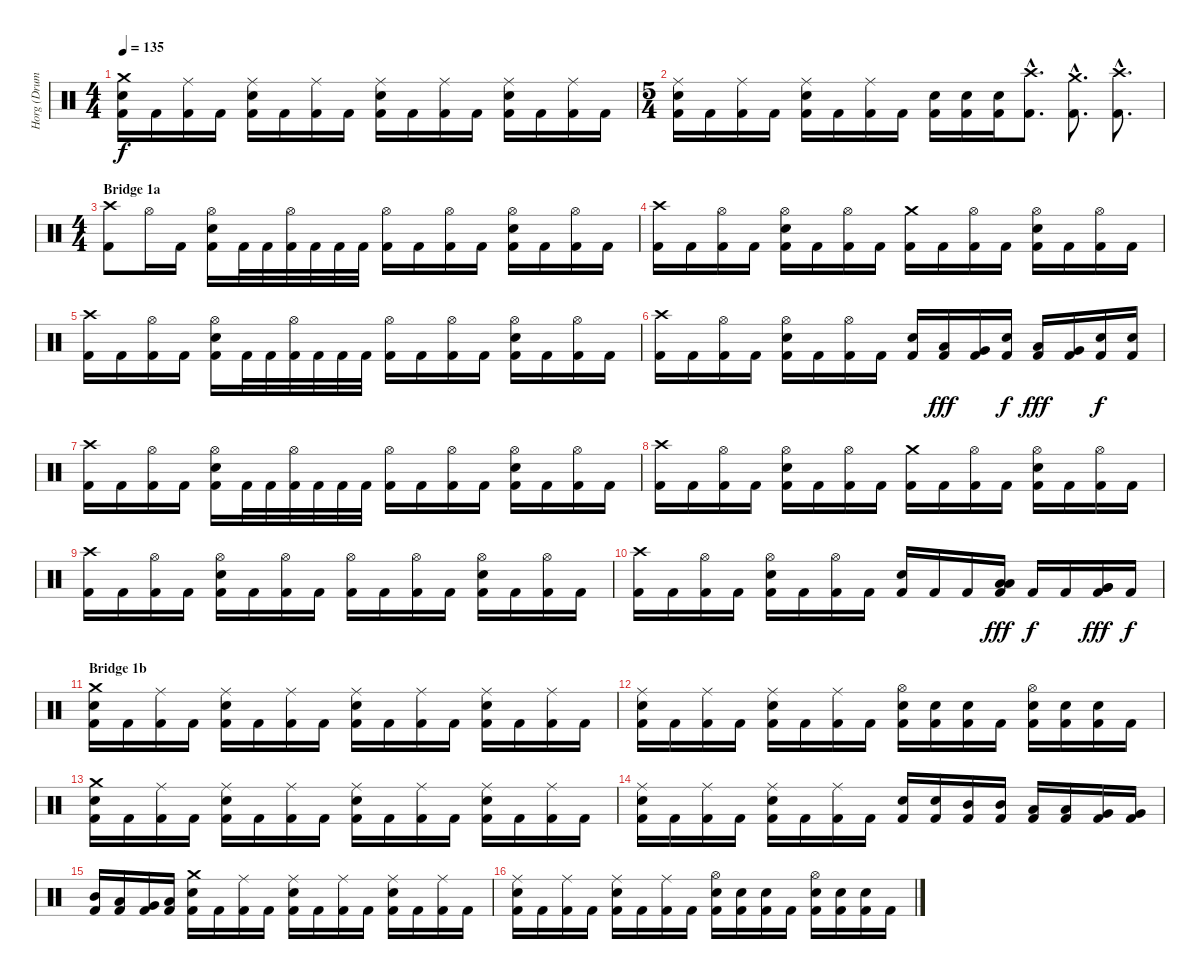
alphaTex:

\track ("Horg (Drums)" "Horg (Drum") {instrument percussion}
\staff {score}
\articulation defaults
\ts (4 4)
\tempo 135
\clef neutral
\ks c
("Crash medium (hit)" "Electric Snare (hit)" "Kick (hit) 2").16{dy f} "Kick (hit) 2".16 ("Ride (middle)" "Kick (hit) 2").16 "Kick (hit) 2".16 ("Ride (middle)" "Electric Snare (hit)" "Kick (hit) 2").16 "Kick (hit) 2".16 ("Ride (middle)" "Kick (hit) 2").16 "Kick (hit) 2".16 ("Ride (middle)" "Electric Snare (hit)" "Kick (hit) 2").16 "Kick (hit) 2".16 ("Ride (middle)" "Kick (hit) 2").16 "Kick (hit) 2".16 ("Ride (middle)" "Electric Snare (hit)" "Kick (hit) 2").16 "Kick (hit) 2".16 ("Ride (middle)" "Kick (hit) 2").16 "Kick (hit) 2".16 |
\ts (5 4)
("Ride (middle)" "Electric Snare (hit)" "Kick (hit) 2").16 "Kick (hit) 2".16 ("Ride (middle)" "Kick (hit) 2").16 "Kick (hit) 2".16 ("Ride (middle)" "Electric Snare (hit)" "Kick (hit) 2").16 "Kick (hit) 2".16 ("Ride (middle)" "Kick (hit) 2").16 "Kick (hit) 2".16 ("Electric Snare (hit)" "Kick (hit) 2").16 ("Electric Snare (hit)" "Kick (hit) 2").16 ("Electric Snare (hit)" "Kick (hit) 2").16 ("Crash high (hit)"{hac} "Kick (hit) 2"{hac}).8{d} ("Crash medium (hit)"{hac} "Kick (hit) 2"{hac}).8{d} ("Crash high (hit)"{hac} "Kick (hit) 2"{hac}).8{d} |
\ts (4 4)
\section ("" "Bridge 1a")
("Crash high (hit)" "Kick (hit) 2").8 "Hi-Hat (open)".16 "Kick (hit) 2".16 ("Hi-Hat (open)" "Electric Snare (hit)" "Kick (hit) 2").16 "Kick (hit) 2".32 "Kick (hit) 2".32 ("Hi-Hat (open)" "Kick (hit) 2").32 "Kick (hit) 2".32 "Kick (hit) 2".32 "Kick (hit) 2".32 ("Hi-Hat (open)" "Kick (hit) 2").16 "Kick (hit) 2".16 ("Hi-Hat (open)" "Kick (hit) 2").16 "Kick (hit) 2".16 ("Hi-Hat (open)" "Electric Snare (hit)" "Kick (hit) 2").16 "Kick (hit) 2".16 ("Hi-Hat (open)" "Kick (hit) 2").16 "Kick (hit) 2".16 |
("Crash high (hit)" "Kick (hit) 2").16 "Kick (hit) 2".16 ("Hi-Hat (open)" "Kick (hit) 2").16 "Kick (hit) 2".16 ("Hi-Hat (open)" "Electric Snare (hit)" "Kick (hit) 2").16 "Kick (hit) 2".16 ("Hi-Hat (open)" "Kick (hit) 2").16 "Kick (hit) 2".16 ("Crash medium (hit)" "Kick (hit) 2").16 "Kick (hit) 2".16 ("Hi-Hat (open)" "Kick (hit) 2").16 "Kick (hit) 2".16 ("Hi-Hat (open)" "Electric Snare (hit)" "Kick (hit) 2").16 "Kick (hit) 2".16 ("Hi-Hat (open)" "Kick (hit) 2").16 "Kick (hit) 2".16 |
("Crash high (hit)" "Kick (hit) 2").16 "Kick (hit) 2".16 ("Hi-Hat (open)" "Kick (hit) 2").16 "Kick (hit) 2".16 ("Hi-Hat (open)" "Electric Snare (hit)" "Kick (hit) 2").16 "Kick (hit) 2".32 "Kick (hit) 2".32 ("Hi-Hat (open)" "Kick (hit) 2").32 "Kick (hit) 2".32 "Kick (hit) 2".32 "Kick (hit) 2".32 ("Hi-Hat (open)" "Kick (hit) 2").16 "Kick (hit) 2".16 ("Hi-Hat (open)" "Kick (hit) 2").16 "Kick (hit) 2".16 ("Hi-Hat (open)" "Electric Snare (hit)" "Kick (hit) 2").16 "Kick (hit) 2".16 ("Hi-Hat (open)" "Kick (hit) 2").16 "Kick (hit) 2".16 |
("Crash high (hit)" "Kick (hit) 2").16 "Kick (hit) 2".16 ("Hi-Hat (open)" "Kick (hit) 2").16 "Kick (hit) 2".16 ("Hi-Hat (open)" "Electric Snare (hit)" "Kick (hit) 2").16 "Kick (hit) 2".16 ("Hi-Hat (open)" "Kick (hit) 2").16 "Kick (hit) 2".16 ("Electric Snare (hit)" "Kick (hit) 2").16 ("Low Tom (hit)" "Kick (hit) 2").16{dy fff} ("Very Low Tom (hit)" "Kick (hit) 2").16 ("Electric Snare (hit)" "Kick (hit) 2").16{dy f} ("Low Tom (hit)" "Kick (hit) 2").16{dy fff} ("Very Low Tom (hit)" "Kick (hit) 2").16 ("Electric Snare (hit)" "Kick (hit) 2").16{dy f} ("Electric Snare (hit)" "Kick (hit) 2").16 |
("Crash high (hit)" "Kick (hit) 2").16 "Kick (hit) 2".16 ("Hi-Hat (open)" "Kick (hit) 2").16 "Kick (hit) 2".16 ("Hi-Hat (open)" "Electric Snare (hit)" "Kick (hit) 2").16 "Kick (hit) 2".32 "Kick (hit) 2".32 ("Hi-Hat (open)" "Kick (hit) 2").32 "Kick (hit) 2".32 "Kick (hit) 2".32 "Kick (hit) 2".32 ("Hi-Hat (open)" "Kick (hit) 2").16 "Kick (hit) 2".16 ("Hi-Hat (open)" "Kick (hit) 2").16 "Kick (hit) 2".16 ("Hi-Hat (open)" "Electric Snare (hit)" "Kick (hit) 2").16 "Kick (hit) 2".16 ("Hi-Hat (open)" "Kick (hit) 2").16 "Kick (hit) 2".16 |
("Crash high (hit)" "Kick (hit) 2").16 "Kick (hit) 2".16 ("Hi-Hat (open)" "Kick (hit) 2").16 "Kick (hit) 2".16 ("Hi-Hat (open)" "Electric Snare (hit)" "Kick (hit) 2").16 "Kick (hit) 2".16 ("Hi-Hat (open)" "Kick (hit) 2").16 "Kick (hit) 2".16 ("Crash medium (hit)" "Kick (hit) 2").16 "Kick (hit) 2".16 ("Hi-Hat (open)" "Kick (hit) 2").16 "Kick (hit) 2".16 ("Hi-Hat (open)" "Electric Snare (hit)" "Kick (hit) 2").16 "Kick (hit) 2".16 ("Hi-Hat (open)" "Kick (hit) 2").16 "Kick (hit) 2".16 |
("Crash high (hit)" "Kick (hit) 2").16 "Kick (hit) 2".16 ("Hi-Hat (open)" "Kick (hit) 2").16 "Kick (hit) 2".16 ("Hi-Hat (open)" "Electric Snare (hit)" "Kick (hit) 2").16 "Kick (hit) 2".16 ("Hi-Hat (open)" "Kick (hit) 2").16 "Kick (hit) 2".16 ("Hi-Hat (open)" "Kick (hit) 2").16 "Kick (hit) 2".16 ("Hi-Hat (open)" "Kick (hit) 2").16 "Kick (hit) 2".16 ("Hi-Hat (open)" "Electric Snare (hit)" "Kick (hit) 2").16 "Kick (hit) 2".16 ("Hi-Hat (open)" "Kick (hit) 2").16 "Kick (hit) 2".16 |
("Crash high (hit)" "Kick (hit) 2").16 "Kick (hit) 2".16 ("Hi-Hat (open)" "Kick (hit) 2").16 "Kick (hit) 2".16 ("Hi-Hat (open)" "Electric Snare (hit)" "Kick (hit) 2").16 "Kick (hit) 2".16 ("Hi-Hat (open)" "Kick (hit) 2").16 "Kick (hit) 2".16 ("Electric Snare (hit)" "Kick (hit) 2").16 "Kick (hit) 2".16 "Kick (hit) 2".16 ("Low Tom (hit)" "Low Tom (hit)" "Kick (hit) 2").16{dy fff} "Kick (hit) 2".16{dy f} "Kick (hit) 2".16 ("Very Low Tom (hit)" "Very Low Tom (hit)" "Kick (hit) 2").16{dy fff} "Kick (hit) 2".16{dy f} |
\section ("" "Bridge 1b")
("Crash medium (hit)" "Electric Snare (hit)" "Kick (hit) 2").16 "Kick (hit) 2".16 ("Ride (middle)" "Kick (hit) 2").16 "Kick (hit) 2".16 ("Ride (middle)" "Electric Snare (hit)" "Kick (hit) 2").16 "Kick (hit) 2".16 ("Ride (middle)" "Kick (hit) 2").16 "Kick (hit) 2".16 ("Ride (middle)" "Electric Snare (hit)" "Kick (hit) 2").16 "Kick (hit) 2".16 ("Ride (middle)" "Kick (hit) 2").16 "Kick (hit) 2".16 ("Ride (middle)" "Electric Snare (hit)" "Kick (hit) 2").16 "Kick (hit) 2".16 ("Ride (middle)" "Kick (hit) 2").16 "Kick (hit) 2".16 |
("Ride (middle)" "Electric Snare (hit)" "Kick (hit) 2").16 "Kick (hit) 2".16 ("Ride (middle)" "Kick (hit) 2").16 "Kick (hit) 2".16 ("Ride (middle)" "Electric Snare (hit)" "Kick (hit) 2").16 "Kick (hit) 2".16 ("Ride (middle)" "Kick (hit) 2").16 "Kick (hit) 2".16 ("Hi-Hat (open)" "Electric Snare (hit)" "Kick (hit) 2").16 ("Electric Snare (hit)" "Kick (hit) 2").16 ("Electric Snare (hit)" "Kick (hit) 2").16 "Kick (hit) 2".16 ("Hi-Hat (open)" "Electric Snare (hit)" "Kick (hit) 2").16 ("Electric Snare (hit)" "Kick (hit) 2").16 ("Electric Snare (hit)" "Kick (hit) 2").16 "Kick (hit) 2".16 |
("Crash medium (hit)" "Electric Snare (hit)" "Kick (hit) 2").16 "Kick (hit) 2".16 ("Ride (middle)" "Kick (hit) 2").16 "Kick (hit) 2".16 ("Ride (middle)" "Electric Snare (hit)" "Kick (hit) 2").16 "Kick (hit) 2".16 ("Ride (middle)" "Kick (hit) 2").16 "Kick (hit) 2".16 ("Ride (middle)" "Electric Snare (hit)" "Kick (hit) 2").16 "Kick (hit) 2".16 ("Ride (middle)" "Kick (hit) 2").16 "Kick (hit) 2".16 ("Ride (middle)" "Electric Snare (hit)" "Kick (hit) 2").16 "Kick (hit) 2".16 ("Ride (middle)" "Kick (hit) 2").16 "Kick (hit) 2".16 |
("Ride (middle)" "Electric Snare (hit)" "Kick (hit) 2").16 "Kick (hit) 2".16 ("Ride (middle)" "Kick (hit) 2").16 "Kick (hit) 2".16 ("Ride (middle)" "Electric Snare (hit)" "Kick (hit) 2").16 "Kick (hit) 2".16 ("Ride (middle)" "Kick (hit) 2").16 "Kick (hit) 2".16 ("Electric Snare (hit)" "Kick (hit) 2").16 ("Electric Snare (hit)" "Kick (hit) 2").16 ("Mid Tom (hit)" "Kick (hit) 2").16 ("Mid Tom (hit)" "Kick (hit) 2").16 ("Low Tom (hit)" "Kick (hit) 2").16 ("Low Tom (hit)" "Kick (hit) 2").16 ("Very Low Tom (hit)" "Kick (hit) 2").16 ("Very Low Tom (hit)" "Kick (hit) 2").16 |
("Mid Tom (hit)" "Kick (hit) 2").16 ("Low Tom (hit)" "Kick (hit) 2").16 ("Very Low Tom (hit)" "Kick (hit) 2").16 ("Low Floor Tom (hit)" "Kick (hit) 2").16 ("Crash medium (hit)" "Electric Snare (hit)" "Kick (hit) 2").16 "Kick (hit) 2".16 ("Ride (middle)" "Kick (hit) 2").16 "Kick (hit) 2".16 ("Ride (middle)" "Electric Snare (hit)" "Kick (hit) 2").16 "Kick (hit) 2".16 ("Ride (middle)" "Kick (hit) 2").16 "Kick (hit) 2".16 ("Ride (middle)" "Electric Snare (hit)" "Kick (hit) 2").16 "Kick (hit) 2".16 ("Ride (middle)" "Kick (hit) 2").16 "Kick (hit) 2".16 |
("Ride (middle)" "Electric Snare (hit)" "Kick (hit) 2").16 "Kick (hit) 2".16 ("Ride (middle)" "Kick (hit) 2").16 "Kick (hit) 2".16 ("Ride (middle)" "Electric Snare (hit)" "Kick (hit) 2").16 "Kick (hit) 2".16 ("Ride (middle)" "Kick (hit) 2").16 "Kick (hit) 2".16 ("Hi-Hat (open)" "Electric Snare (hit)" "Kick (hit) 2").16 ("Electric Snare (hit)" "Kick (hit) 2").16 ("Electric Snare (hit)" "Kick (hit) 2").16 "Kick (hit) 2".16 ("Hi-Hat (open)" "Electric Snare (hit)" "Kick (hit) 2").16 ("Electric Snare (hit)" "Kick (hit) 2").16 ("Electric Snare (hit)" "Kick (hit) 2").16 "Kick (hit) 2".16
